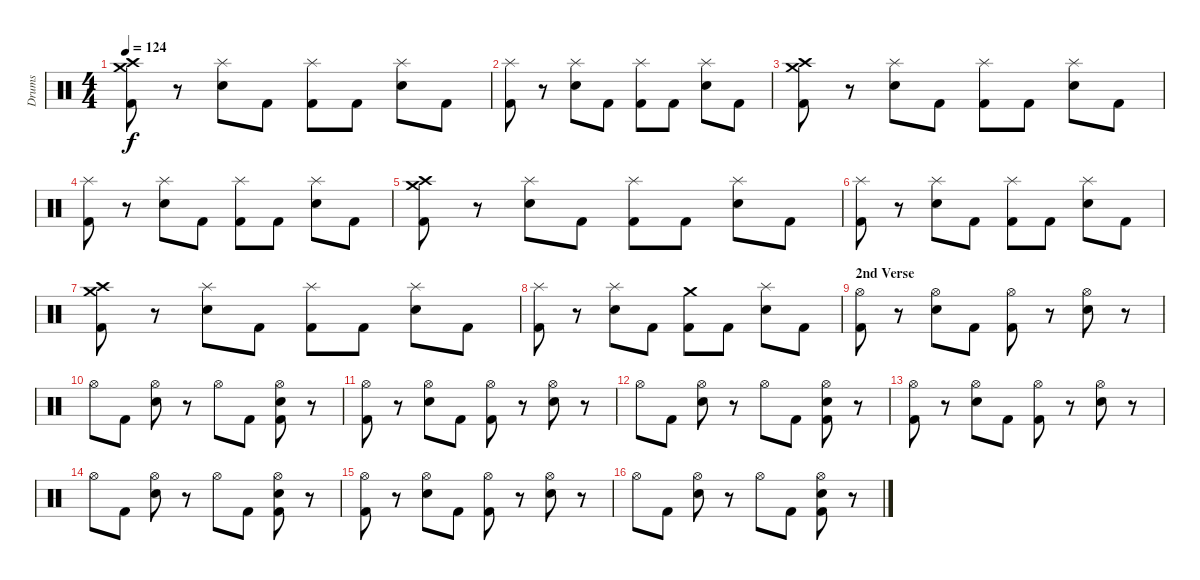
\track ("Drums" "Drums") {instrument percussion}
\staff {score}
\articulation defaults
\ts (4 4)
\tempo 124
\clef neutral
\ks c
("Crash medium (hit)" "Crash high (hit)" "Kick (hit) 2").8{dy f} r.8 ("Splash (hit)" "Snare (hit) 2").8 "Kick (hit) 2".8 ("Splash (hit)" "Kick (hit) 2").8 "Kick (hit) 2".8 ("Splash (hit)" "Snare (hit) 2").8 "Kick (hit) 2".8 |
("Splash (hit)" "Kick (hit) 2").8 r.8 ("Splash (hit)" "Snare (hit) 2").8 "Kick (hit) 2".8 ("Splash (hit)" "Kick (hit) 2").8 "Kick (hit) 2".8 ("Splash (hit)" "Snare (hit) 2").8 "Kick (hit) 2".8 |
("Crash medium (hit)" "Crash high (hit)" "Kick (hit) 2").8 r.8 ("Splash (hit)" "Snare (hit) 2").8 "Kick (hit) 2".8 ("Splash (hit)" "Kick (hit) 2").8 "Kick (hit) 2".8 ("Splash (hit)" "Snare (hit) 2").8 "Kick (hit) 2".8 |
("Splash (hit)" "Kick (hit) 2").8 r.8 ("Splash (hit)" "Snare (hit) 2").8 "Kick (hit) 2".8 ("Splash (hit)" "Kick (hit) 2").8 "Kick (hit) 2".8 ("Splash (hit)" "Snare (hit) 2").8 "Kick (hit) 2".8 |
("Crash medium (hit)" "Crash high (hit)" "Kick (hit) 2").8 r.8 ("Splash (hit)" "Snare (hit) 2").8 "Kick (hit) 2".8 ("Splash (hit)" "Kick (hit) 2").8 "Kick (hit) 2".8 ("Splash (hit)" "Snare (hit) 2").8 "Kick (hit) 2".8 |
("Splash (hit)" "Kick (hit) 2").8 r.8 ("Splash (hit)" "Snare (hit) 2").8 "Kick (hit) 2".8 ("Splash (hit)" "Kick (hit) 2").8 "Kick (hit) 2".8 ("Splash (hit)" "Snare (hit) 2").8 "Kick (hit) 2".8 |
("Crash medium (hit)" "Crash high (hit)" "Kick (hit) 2").8 r.8 ("Splash (hit)" "Snare (hit) 2").8 "Kick (hit) 2".8 ("Splash (hit)" "Kick (hit) 2").8 "Kick (hit) 2".8 ("Splash (hit)" "Snare (hit) 2").8 "Kick (hit) 2".8 |
("Splash (hit)" "Kick (hit) 2").8 r.8 ("Splash (hit)" "Snare (hit) 2").8 "Kick (hit) 2".8 ("Crash medium (hit)" "Kick (hit) 2").8 "Kick (hit) 2".8 ("Splash (hit)" "Snare (hit) 2").8 "Kick (hit) 2".8 |
\section ("" "2nd Verse")
("Hi-Hat (open)" "Kick (hit) 2").8 r.8 ("Hi-Hat (open)" "Snare (hit) 2").8 "Kick (hit) 2".8 ("Hi-Hat (open)" "Kick (hit) 2").8 r.8 ("Hi-Hat (open)" "Snare (hit) 2").8 r.8 |
"Hi-Hat (open)".8 "Kick (hit) 2".8 ("Hi-Hat (open)" "Snare (hit) 2").8 r.8 "Hi-Hat (open)".8 "Kick (hit) 2".8 ("Hi-Hat (open)" "Snare (hit) 2" "Kick (hit) 2").8 r.8 |
("Hi-Hat (open)" "Kick (hit) 2").8 r.8 ("Hi-Hat (open)" "Snare (hit) 2").8 "Kick (hit) 2".8 ("Hi-Hat (open)" "Kick (hit) 2").8 r.8 ("Hi-Hat (open)" "Snare (hit) 2").8 r.8 |
"Hi-Hat (open)".8 "Kick (hit) 2".8 ("Hi-Hat (open)" "Snare (hit) 2").8 r.8 "Hi-Hat (open)".8 "Kick (hit) 2".8 ("Hi-Hat (open)" "Snare (hit) 2" "Kick (hit) 2").8 r.8 |
("Hi-Hat (open)" "Kick (hit) 2").8 r.8 ("Hi-Hat (open)" "Snare (hit) 2").8 "Kick (hit) 2".8 ("Hi-Hat (open)" "Kick (hit) 2").8 r.8 ("Hi-Hat (open)" "Snare (hit) 2").8 r.8 |
"Hi-Hat (open)".8 "Kick (hit) 2".8 ("Hi-Hat (open)" "Snare (hit) 2").8 r.8 "Hi-Hat (open)".8 "Kick (hit) 2".8 ("Hi-Hat (open)" "Snare (hit) 2" "Kick (hit) 2").8 r.8 |
("Hi-Hat (open)" "Kick (hit) 2").8 r.8 ("Hi-Hat (open)" "Snare (hit) 2").8 "Kick (hit) 2".8 ("Hi-Hat (open)" "Kick (hit) 2").8 r.8 ("Hi-Hat (open)" "Snare (hit) 2").8 r.8 |
"Hi-Hat (open)".8 "Kick (hit) 2".8 ("Hi-Hat (open)" "Snare (hit) 2").8 r.8 "Hi-Hat (open)".8 "Kick (hit) 2".8 ("Hi-Hat (open)" "Snare (hit) 2" "Kick (hit) 2").8 r.8
